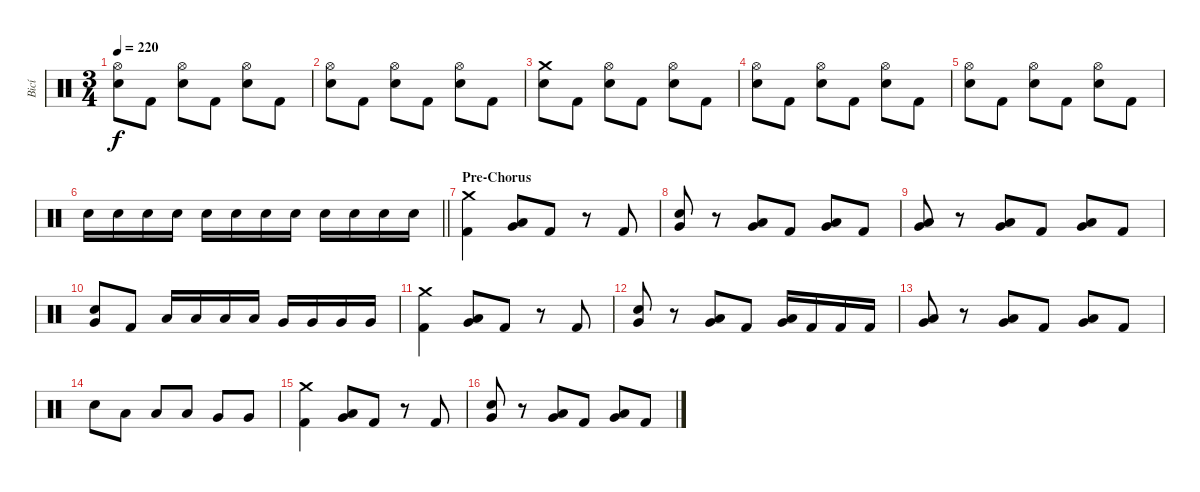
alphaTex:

\track ("Bicí" "Bicí") {instrument percussion}
\staff {score}
\articulation defaults
\ts (3 4)
\tempo 220
\clef neutral
\ks c
("Hi-Hat (open)" "Electric Snare (hit)").8{dy f} "Kick (hit) 2".8 ("Hi-Hat (open)" "Electric Snare (hit)").8 "Kick (hit) 2".8 ("Hi-Hat (open)" "Electric Snare (hit)").8 "Kick (hit) 2".8 |
("Hi-Hat (open)" "Electric Snare (hit)").8 "Kick (hit) 2".8 ("Hi-Hat (open)" "Electric Snare (hit)").8 "Kick (hit) 2".8 ("Hi-Hat (open)" "Electric Snare (hit)").8 "Kick (hit) 2".8 |
("Crash medium (hit)" "Electric Snare (hit)").8 "Kick (hit) 2".8 ("Hi-Hat (open)" "Electric Snare (hit)").8 "Kick (hit) 2".8 ("Hi-Hat (open)" "Electric Snare (hit)").8 "Kick (hit) 2".8 |
("Hi-Hat (open)" "Electric Snare (hit)").8 "Kick (hit) 2".8 ("Hi-Hat (open)" "Electric Snare (hit)").8 "Kick (hit) 2".8 ("Hi-Hat (open)" "Electric Snare (hit)").8 "Kick (hit) 2".8 |
("Hi-Hat (open)" "Electric Snare (hit)").8 "Kick (hit) 2".8 ("Hi-Hat (open)" "Electric Snare (hit)").8 "Kick (hit) 2".8 ("Hi-Hat (open)" "Electric Snare (hit)").8 "Kick (hit) 2".8 |
\barLineRight lightlight "Electric Snare (hit)".16 "Electric Snare (hit)".16 "Electric Snare (hit)".16 "Electric Snare (hit)".16 "Electric Snare (hit)".16 "Electric Snare (hit)".16 "Electric Snare (hit)".16 "Electric Snare (hit)".16 "Electric Snare (hit)".16 "Electric Snare (hit)".16 "Electric Snare (hit)".16 "Electric Snare (hit)".16
|
\section ("" "Pre-Chorus")
("Crash medium (hit)" "Kick (hit) 2").4 ("Low Tom (hit)" "Very Low Tom (hit)").8 "Kick (hit) 2".8 r.8 "Kick (hit) 2".8 |
("Electric Snare (hit)" "Very Low Tom (hit)").8 r.8 ("Low Tom (hit)" "Very Low Tom (hit)").8 "Kick (hit) 2".8 ("Low Tom (hit)" "Very Low Tom (hit)").8 "Kick (hit) 2".8 |
("Low Tom (hit)" "Very Low Tom (hit)").8 r.8 ("Low Tom (hit)" "Very Low Tom (hit)").8 "Kick (hit) 2".8 ("Low Tom (hit)" "Very Low Tom (hit)").8 "Kick (hit) 2".8 |
("Electric Snare (hit)" "Very Low Tom (hit)").8 "Kick (hit) 2".8 "Low Tom (hit)".16 "Low Tom (hit)".16 "Low Tom (hit)".16 "Low Tom (hit)".16 "Very Low Tom (hit)".16 "Very Low Tom (hit)".16 "Very Low Tom (hit)".16 "Very Low Tom (hit)".16 |
("Crash medium (hit)" "Kick (hit) 2").4 ("Low Tom (hit)" "Very Low Tom (hit)").8 "Kick (hit) 2".8 r.8 "Kick (hit) 2".8 |
("Electric Snare (hit)" "Very Low Tom (hit)").8 r.8 ("Low Tom (hit)" "Very Low Tom (hit)").8 "Kick (hit) 2".8 ("Low Tom (hit)" "Very Low Tom (hit)").16 "Kick (hit) 2".16 "Kick (hit) 2".16 "Kick (hit) 2".16 |
("Low Tom (hit)" "Very Low Tom (hit)").8 r.8 ("Low Tom (hit)" "Very Low Tom (hit)").8 "Kick (hit) 2".8 ("Low Tom (hit)" "Very Low Tom (hit)").8 "Kick (hit) 2".8 |
"Electric Snare (hit)".8 "Low Tom (hit)".8 "Low Tom (hit)".8 "Low Tom (hit)".8 "Very Low Tom (hit)".8 "Very Low Tom (hit)".8 |
("Crash medium (hit)" "Kick (hit) 2").4 ("Low Tom (hit)" "Very Low Tom (hit)").8 "Kick (hit) 2".8 r.8 "Kick (hit) 2".8 |
("Electric Snare (hit)" "Very Low Tom (hit)").8 r.8 ("Low Tom (hit)" "Very Low Tom (hit)").8 "Kick (hit) 2".8 ("Low Tom (hit)" "Very Low Tom (hit)").8 "Kick (hit) 2".8
